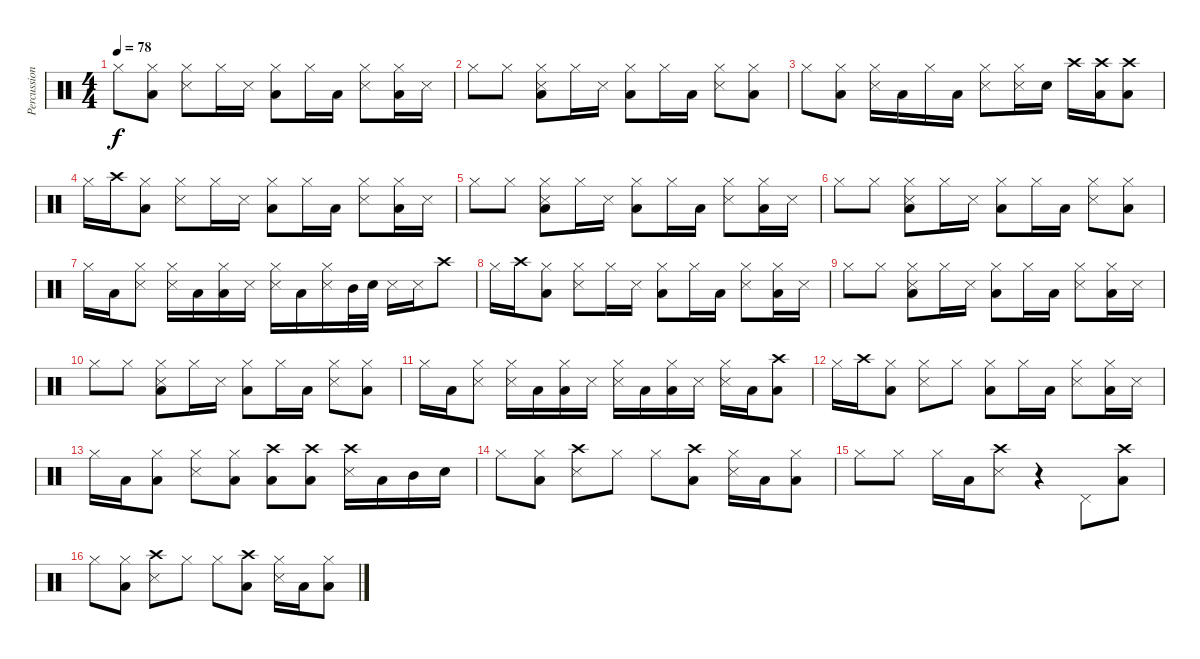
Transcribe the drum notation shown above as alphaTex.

\track ("Percussions" "Percussion") {instrument percussion}
\staff {score}
\articulation defaults
\ts (4 4)
\tempo 78
\clef neutral
\ks c "Hi-Hat (closed)".8{dy f}
("Hi-Hat (closed)" "Low Floor Tom (hit)").8 ("Hi-Hat (closed)" "Snare (side stick) 3").8 "Hi-Hat (closed)".16 "Snare (side stick) 3".16 ("Hi-Hat (closed)" "Low Floor Tom (hit)").8 "Hi-Hat (closed)".16 "Low Floor Tom (hit)".16 ("Hi-Hat (closed)" "Snare (side stick) 3").8 ("Hi-Hat (closed)" "Low Floor Tom (hit)").16 "Snare (side stick) 3".16 |
"Hi-Hat (closed)".8 "Hi-Hat (closed)".8 ("Hi-Hat (closed)" "Snare (side stick) 3" "Low Floor Tom (hit)").8 "Hi-Hat (closed)".16 "Snare (side stick) 3".16 ("Hi-Hat (closed)" "Low Floor Tom (hit)").8 "Hi-Hat (closed)".16 "Low Floor Tom (hit)".16 ("Hi-Hat (closed)" "Snare (side stick) 3").8 ("Hi-Hat (closed)" "Low Floor Tom (hit)").8 |
"Hi-Hat (closed)".8 ("Hi-Hat (closed)" "Low Floor Tom (hit)").8 ("Hi-Hat (closed)" "Snare (side stick) 3").16 "Low Floor Tom (hit)".16 "Hi-Hat (closed)".16 "Low Floor Tom (hit)".16 ("Hi-Hat (closed)" "Snare (side stick) 3").8 ("Hi-Hat (closed)" "Snare (side stick) 3").16 "Snare (hit) 2".16 "Crash high (hit)".16 ("Crash high (hit)" "Low Floor Tom (hit)").16 ("Crash high (hit)" "Low Floor Tom (hit)").8 |
"Hi-Hat (closed)".16 "Crash high (hit)".16 ("Hi-Hat (closed)" "Low Floor Tom (hit)").8 ("Hi-Hat (closed)" "Snare (side stick) 3").8 "Hi-Hat (closed)".16 "Snare (side stick) 3".16 ("Hi-Hat (closed)" "Low Floor Tom (hit)").8 "Hi-Hat (closed)".16 "Low Floor Tom (hit)".16 ("Hi-Hat (closed)" "Snare (side stick) 3").8 ("Hi-Hat (closed)" "Low Floor Tom (hit)").16 "Snare (side stick) 3".16 |
"Hi-Hat (closed)".8 "Hi-Hat (closed)".8 ("Hi-Hat (closed)" "Snare (side stick) 3" "Low Floor Tom (hit)").8 "Hi-Hat (closed)".16 "Snare (side stick) 3".16 ("Hi-Hat (closed)" "Low Floor Tom (hit)").8 "Hi-Hat (closed)".16 "Low Floor Tom (hit)".16 ("Hi-Hat (closed)" "Snare (side stick) 3").8 ("Hi-Hat (closed)" "Low Floor Tom (hit)").16 "Snare (side stick) 3".16 |
"Hi-Hat (closed)".8 "Hi-Hat (closed)".8 ("Hi-Hat (closed)" "Snare (side stick) 3" "Low Floor Tom (hit)").8 "Hi-Hat (closed)".16 "Snare (side stick) 3".16 ("Hi-Hat (closed)" "Low Floor Tom (hit)").8 "Hi-Hat (closed)".16 "Low Floor Tom (hit)".16 ("Hi-Hat (closed)" "Snare (side stick) 3").8 ("Hi-Hat (closed)" "Low Floor Tom (hit)").8 |
"Hi-Hat (closed)".16 "Low Floor Tom (hit)".16 ("Hi-Hat (closed)" "Snare (side stick) 3").8 ("Hi-Hat (closed)" "Snare (side stick) 3").16 "Low Floor Tom (hit)".16 ("Hi-Hat (closed)" "Low Floor Tom (hit)").16 "Snare (side stick) 3".16 ("Hi-Hat (closed)" "Snare (side stick) 3").16 "Low Floor Tom (hit)".16 ("Hi-Hat (closed)" "Snare (side stick) 3").16 "Mid Tom (hit)".32 "Snare (hit) 2".32 "Snare (side stick) 3".16 "Snare (side stick) 3".16 "Crash high (hit)".8 |
"Hi-Hat (closed)".16 "Crash high (hit)".16 ("Hi-Hat (closed)" "Low Floor Tom (hit)").8 ("Hi-Hat (closed)" "Snare (side stick) 3").8 "Hi-Hat (closed)".16 "Snare (side stick) 3".16 ("Hi-Hat (closed)" "Low Floor Tom (hit)").8 "Hi-Hat (closed)".16 "Low Floor Tom (hit)".16 ("Hi-Hat (closed)" "Snare (side stick) 3").8 ("Hi-Hat (closed)" "Low Floor Tom (hit)").16 "Snare (side stick) 3".16 |
"Hi-Hat (closed)".8 "Hi-Hat (closed)".8 ("Hi-Hat (closed)" "Snare (side stick) 3" "Low Floor Tom (hit)").8 "Hi-Hat (closed)".16 "Snare (side stick) 3".16 ("Hi-Hat (closed)" "Low Floor Tom (hit)").8 "Hi-Hat (closed)".16 "Low Floor Tom (hit)".16 ("Hi-Hat (closed)" "Snare (side stick) 3").8 ("Hi-Hat (closed)" "Low Floor Tom (hit)").16 "Snare (side stick) 3".16 |
"Hi-Hat (closed)".8 "Hi-Hat (closed)".8 ("Hi-Hat (closed)" "Snare (side stick) 3" "Low Floor Tom (hit)").8 "Hi-Hat (closed)".16 "Snare (side stick) 3".16 ("Hi-Hat (closed)" "Low Floor Tom (hit)").8 "Hi-Hat (closed)".16 "Low Floor Tom (hit)".16 ("Hi-Hat (closed)" "Snare (side stick) 3").8 ("Hi-Hat (closed)" "Low Floor Tom (hit)").8 |
"Hi-Hat (closed)".16 "Low Floor Tom (hit)".16 ("Hi-Hat (closed)" "Snare (side stick) 3").8 ("Hi-Hat (closed)" "Snare (side stick) 3").16 "Low Floor Tom (hit)".16 ("Hi-Hat (closed)" "Low Floor Tom (hit)").16 "Snare (side stick) 3".16 ("Hi-Hat (closed)" "Snare (side stick) 3").16 "Low Floor Tom (hit)".16 ("Hi-Hat (closed)" "Low Floor Tom (hit)").16 "Snare (side stick) 3".16 ("Hi-Hat (closed)" "Snare (side stick) 3").16 "Low Floor Tom (hit)".16 ("Crash high (hit)" "Low Floor Tom (hit)").8 |
"Hi-Hat (closed)".16 "Crash high (hit)".16 ("Hi-Hat (closed)" "Low Floor Tom (hit)").8 ("Hi-Hat (closed)" "Snare (side stick) 3").8 "Hi-Hat (closed)".8 ("Hi-Hat (closed)" "Low Floor Tom (hit)").8 "Hi-Hat (closed)".16 "Low Floor Tom (hit)".16 ("Hi-Hat (closed)" "Snare (side stick) 3").8 ("Hi-Hat (closed)" "Low Floor Tom (hit)").16 "Snare (side stick) 3".16 |
"Hi-Hat (closed)".16 "Low Floor Tom (hit)".16 ("Hi-Hat (closed)" "Low Floor Tom (hit)").8 ("Hi-Hat (closed)" "Snare (side stick) 3").8 ("Hi-Hat (closed)" "Low Floor Tom (hit)").8 ("Crash high (hit)" "Low Floor Tom (hit)").8 ("Crash high (hit)" "Low Floor Tom (hit)").8 ("Crash high (hit)" "Snare (side stick) 3").16 "Low Floor Tom (hit)".16 "Mid Tom (hit)".16 "Snare (hit) 2".16 |
"Hi-Hat (closed)".8 ("Hi-Hat (closed)" "Low Floor Tom (hit)").8 ("Crash high (hit)" "Snare (side stick) 3").8 "Hi-Hat (closed)".8 "Hi-Hat (closed)".8 ("Crash high (hit)" "Low Floor Tom (hit)").8 ("Hi-Hat (closed)" "Snare (side stick) 3").16 "Low Floor Tom (hit)".16 ("Hi-Hat (closed)" "Low Floor Tom (hit)").8 |
"Hi-Hat (closed)".8 "Hi-Hat (closed)".8 "Hi-Hat (closed)".16 "Low Floor Tom (hit)".16 ("Crash high (hit)" "Snare (side stick) 3").8 r.4 "Pedal Hi-Hat (hit)".8 ("Crash high (hit)" "Low Floor Tom (hit)").8 |
"Hi-Hat (closed)".8 ("Hi-Hat (closed)" "Low Floor Tom (hit)").8 ("Crash high (hit)" "Snare (side stick) 3").8 "Hi-Hat (closed)".8 "Hi-Hat (closed)".8 ("Crash high (hit)" "Low Floor Tom (hit)").8 ("Hi-Hat (closed)" "Snare (side stick) 3").16 "Low Floor Tom (hit)".16 ("Hi-Hat (closed)" "Low Floor Tom (hit)").8
